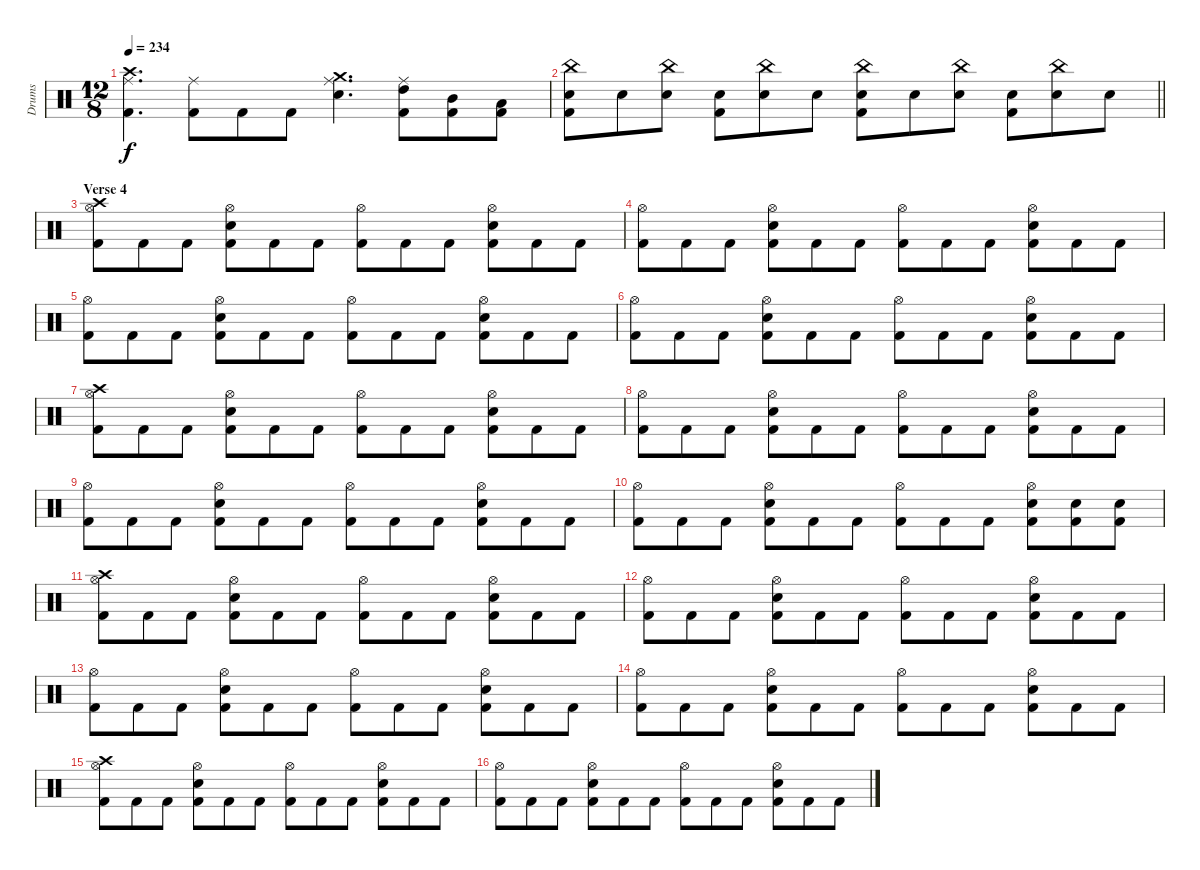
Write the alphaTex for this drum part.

\track ("Drums" "Drums") {instrument percussion}
\staff {score}
\articulation defaults
\ts (12 8)
\tempo 234
\clef neutral
\ks c
("Crash high (hit)" "Ride (middle)" "Kick (hit) 2").4{d dy f} ("Ride (middle)" "Kick (hit) 2").8 "Kick (hit) 2".8 "Kick (hit) 2".8 ("Crash medium (hit)" "Ride (middle)" "Snare (hit) 2").4{d} ("Ride (middle)" "High Tom (hit)" "Kick (hit) 2").8 ("Mid Tom (hit)" "Kick (hit) 2").8 ("Low Tom (hit)" "Kick (hit) 2").8 |
\barLineRight lightlight
("China (hit)" "Snare (hit) 2" "Kick (hit) 2").8 "Snare (hit) 2".8 ("China (hit)" "Snare (hit) 2").8 ("Snare (hit) 2" "Kick (hit) 2").8 ("China (hit)" "Snare (hit) 2").8 "Snare (hit) 2".8 ("China (hit)" "Snare (hit) 2" "Kick (hit) 2").8 "Snare (hit) 2".8 ("China (hit)" "Snare (hit) 2").8 ("Snare (hit) 2" "Kick (hit) 2").8 ("China (hit)" "Snare (hit) 2").8 "Snare (hit) 2".8 |
\section ("" "Verse 4")
("Crash high (hit)" "Hi-Hat (open)" "Kick (hit) 2").8 "Kick (hit) 2".8 "Kick (hit) 2".8 ("Hi-Hat (open)" "Snare (hit) 2" "Kick (hit) 2").8 "Kick (hit) 2".8 "Kick (hit) 2".8 ("Hi-Hat (open)" "Kick (hit) 2").8 "Kick (hit) 2".8 "Kick (hit) 2".8 ("Hi-Hat (open)" "Snare (hit) 2" "Kick (hit) 2").8 "Kick (hit) 2".8 "Kick (hit) 2".8 |
("Hi-Hat (open)" "Kick (hit) 2").8 "Kick (hit) 2".8 "Kick (hit) 2".8 ("Hi-Hat (open)" "Snare (hit) 2" "Kick (hit) 2").8 "Kick (hit) 2".8 "Kick (hit) 2".8 ("Hi-Hat (open)" "Kick (hit) 2").8 "Kick (hit) 2".8 "Kick (hit) 2".8 ("Hi-Hat (open)" "Snare (hit) 2" "Kick (hit) 2").8 "Kick (hit) 2".8 "Kick (hit) 2".8 |
("Hi-Hat (open)" "Kick (hit) 2").8 "Kick (hit) 2".8 "Kick (hit) 2".8 ("Hi-Hat (open)" "Snare (hit) 2" "Kick (hit) 2").8 "Kick (hit) 2".8 "Kick (hit) 2".8 ("Hi-Hat (open)" "Kick (hit) 2").8 "Kick (hit) 2".8 "Kick (hit) 2".8 ("Hi-Hat (open)" "Snare (hit) 2" "Kick (hit) 2").8 "Kick (hit) 2".8 "Kick (hit) 2".8 |
("Hi-Hat (open)" "Kick (hit) 2").8 "Kick (hit) 2".8 "Kick (hit) 2".8 ("Hi-Hat (open)" "Snare (hit) 2" "Kick (hit) 2").8 "Kick (hit) 2".8 "Kick (hit) 2".8 ("Hi-Hat (open)" "Kick (hit) 2").8 "Kick (hit) 2".8 "Kick (hit) 2".8 ("Hi-Hat (open)" "Snare (hit) 2" "Kick (hit) 2").8 "Kick (hit) 2".8 "Kick (hit) 2".8 |
("Crash high (hit)" "Hi-Hat (open)" "Kick (hit) 2").8 "Kick (hit) 2".8 "Kick (hit) 2".8 ("Hi-Hat (open)" "Snare (hit) 2" "Kick (hit) 2").8 "Kick (hit) 2".8 "Kick (hit) 2".8 ("Hi-Hat (open)" "Kick (hit) 2").8 "Kick (hit) 2".8 "Kick (hit) 2".8 ("Hi-Hat (open)" "Snare (hit) 2" "Kick (hit) 2").8 "Kick (hit) 2".8 "Kick (hit) 2".8 |
("Hi-Hat (open)" "Kick (hit) 2").8 "Kick (hit) 2".8 "Kick (hit) 2".8 ("Hi-Hat (open)" "Snare (hit) 2" "Kick (hit) 2").8 "Kick (hit) 2".8 "Kick (hit) 2".8 ("Hi-Hat (open)" "Kick (hit) 2").8 "Kick (hit) 2".8 "Kick (hit) 2".8 ("Hi-Hat (open)" "Snare (hit) 2" "Kick (hit) 2").8 "Kick (hit) 2".8 "Kick (hit) 2".8 |
("Hi-Hat (open)" "Kick (hit) 2").8 "Kick (hit) 2".8 "Kick (hit) 2".8 ("Hi-Hat (open)" "Snare (hit) 2" "Kick (hit) 2").8 "Kick (hit) 2".8 "Kick (hit) 2".8 ("Hi-Hat (open)" "Kick (hit) 2").8 "Kick (hit) 2".8 "Kick (hit) 2".8 ("Hi-Hat (open)" "Snare (hit) 2" "Kick (hit) 2").8 "Kick (hit) 2".8 "Kick (hit) 2".8 |
("Hi-Hat (open)" "Kick (hit) 2").8 "Kick (hit) 2".8 "Kick (hit) 2".8 ("Hi-Hat (open)" "Snare (hit) 2" "Kick (hit) 2").8 "Kick (hit) 2".8 "Kick (hit) 2".8 ("Hi-Hat (open)" "Kick (hit) 2").8 "Kick (hit) 2".8 "Kick (hit) 2".8 ("Hi-Hat (open)" "Snare (hit) 2" "Kick (hit) 2").8 ("Snare (hit) 2" "Kick (hit) 2").8 ("Snare (hit) 2" "Kick (hit) 2").8 |
("Crash high (hit)" "Hi-Hat (open)" "Kick (hit) 2").8 "Kick (hit) 2".8 "Kick (hit) 2".8 ("Hi-Hat (open)" "Snare (hit) 2" "Kick (hit) 2").8 "Kick (hit) 2".8 "Kick (hit) 2".8 ("Hi-Hat (open)" "Kick (hit) 2").8 "Kick (hit) 2".8 "Kick (hit) 2".8 ("Hi-Hat (open)" "Snare (hit) 2" "Kick (hit) 2").8 "Kick (hit) 2".8 "Kick (hit) 2".8 |
("Hi-Hat (open)" "Kick (hit) 2").8 "Kick (hit) 2".8 "Kick (hit) 2".8 ("Hi-Hat (open)" "Snare (hit) 2" "Kick (hit) 2").8 "Kick (hit) 2".8 "Kick (hit) 2".8 ("Hi-Hat (open)" "Kick (hit) 2").8 "Kick (hit) 2".8 "Kick (hit) 2".8 ("Hi-Hat (open)" "Snare (hit) 2" "Kick (hit) 2").8 "Kick (hit) 2".8 "Kick (hit) 2".8 |
("Hi-Hat (open)" "Kick (hit) 2").8 "Kick (hit) 2".8 "Kick (hit) 2".8 ("Hi-Hat (open)" "Snare (hit) 2" "Kick (hit) 2").8 "Kick (hit) 2".8 "Kick (hit) 2".8 ("Hi-Hat (open)" "Kick (hit) 2").8 "Kick (hit) 2".8 "Kick (hit) 2".8 ("Hi-Hat (open)" "Snare (hit) 2" "Kick (hit) 2").8 "Kick (hit) 2".8 "Kick (hit) 2".8 |
("Hi-Hat (open)" "Kick (hit) 2").8 "Kick (hit) 2".8 "Kick (hit) 2".8 ("Hi-Hat (open)" "Snare (hit) 2" "Kick (hit) 2").8 "Kick (hit) 2".8 "Kick (hit) 2".8 ("Hi-Hat (open)" "Kick (hit) 2").8 "Kick (hit) 2".8 "Kick (hit) 2".8 ("Hi-Hat (open)" "Snare (hit) 2" "Kick (hit) 2").8 "Kick (hit) 2".8 "Kick (hit) 2".8 |
("Crash high (hit)" "Hi-Hat (open)" "Kick (hit) 2").8 "Kick (hit) 2".8 "Kick (hit) 2".8 ("Hi-Hat (open)" "Snare (hit) 2" "Kick (hit) 2").8 "Kick (hit) 2".8 "Kick (hit) 2".8 ("Hi-Hat (open)" "Kick (hit) 2").8 "Kick (hit) 2".8 "Kick (hit) 2".8 ("Hi-Hat (open)" "Snare (hit) 2" "Kick (hit) 2").8 "Kick (hit) 2".8 "Kick (hit) 2".8 |
("Hi-Hat (open)" "Kick (hit) 2").8 "Kick (hit) 2".8 "Kick (hit) 2".8 ("Hi-Hat (open)" "Snare (hit) 2" "Kick (hit) 2").8 "Kick (hit) 2".8 "Kick (hit) 2".8 ("Hi-Hat (open)" "Kick (hit) 2").8 "Kick (hit) 2".8 "Kick (hit) 2".8 ("Hi-Hat (open)" "Snare (hit) 2" "Kick (hit) 2").8 "Kick (hit) 2".8 "Kick (hit) 2".8
